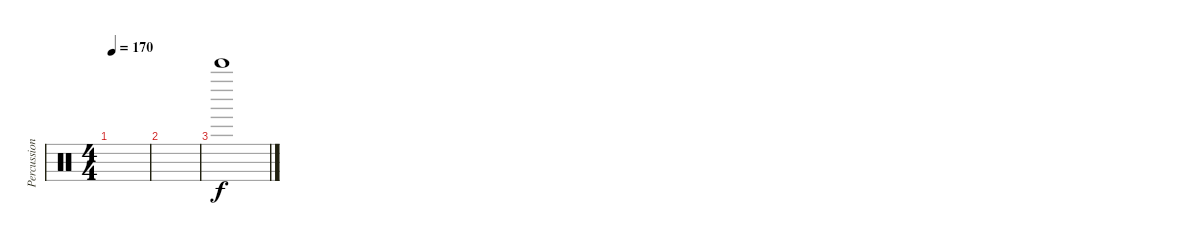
\track ("Percussion" "Percussion") {instrument percussion}
\staff {score}
\articulation defaults
\ts (4 4)
\tempo 170
\clef neutral
\ks c
|
|
"Bell Tree (hit)".1
